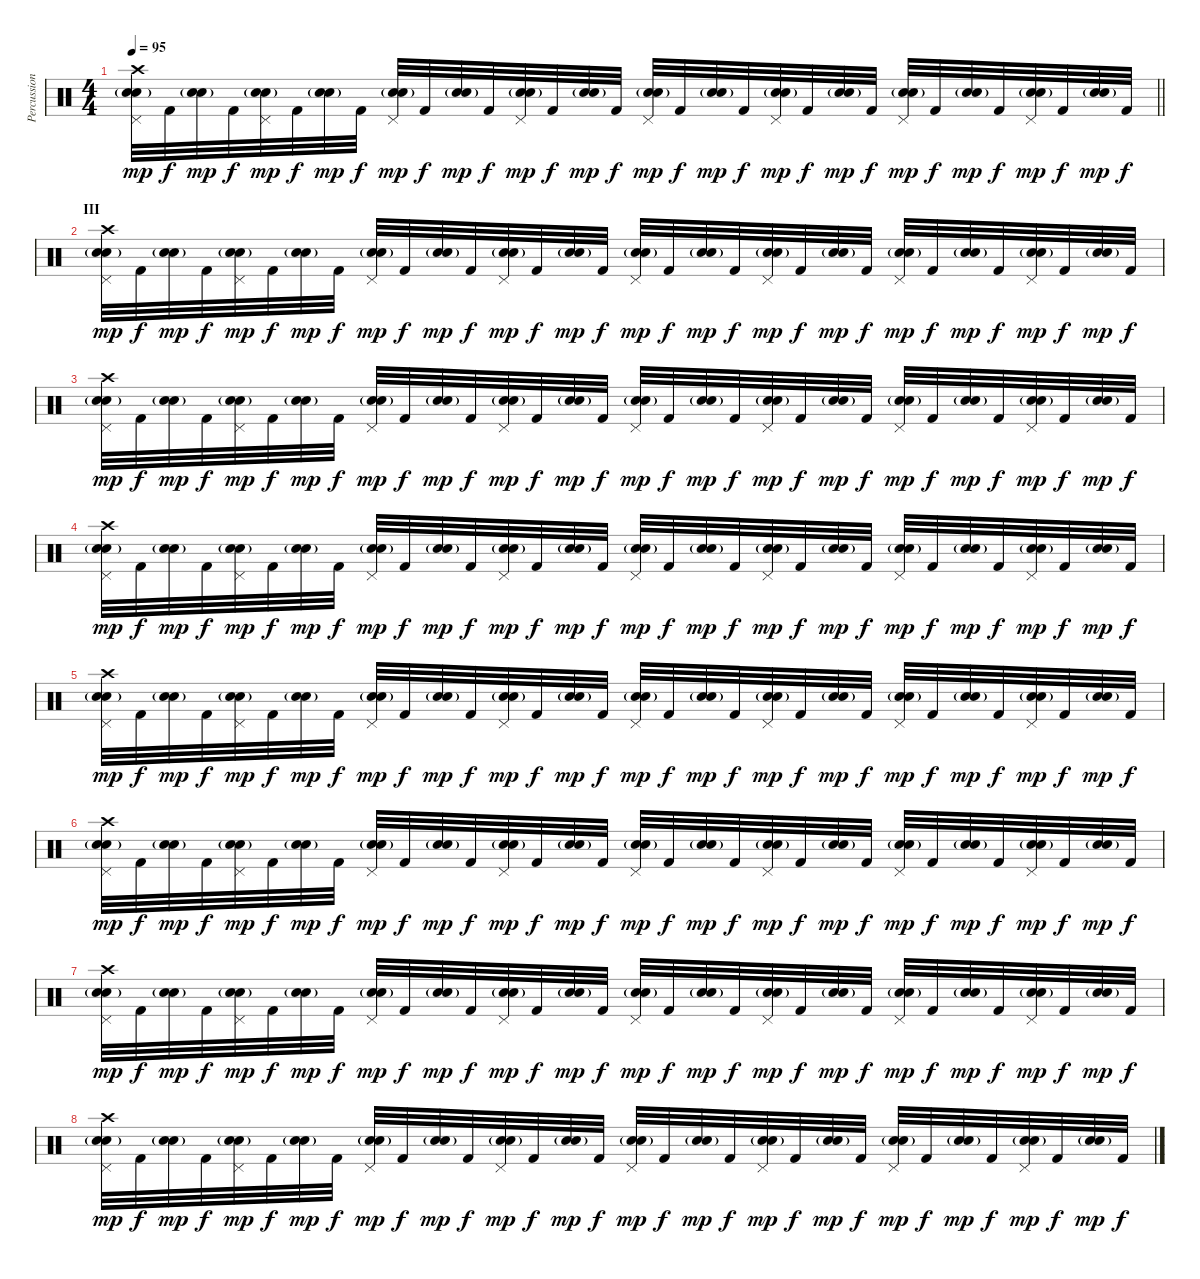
\track ("Percussion" "Percussion") {instrument percussion}
\staff {score}
\articulation defaults
\ts (4 4)
\tempo 95
\clef neutral
\barLineRight lightlight
\ks c
("Crash high (hit)" "Electric Snare (hit)" "Snare (hit) 2"{g} "Pedal Hi-Hat (hit)").32{dy mp} "Kick (hit) 2".32{dy f} ("Electric Snare (hit)" "Snare (hit) 2"{g}).32{dy mp} "Kick (hit) 2".32{dy f} ("Electric Snare (hit)" "Snare (hit) 2"{g} "Pedal Hi-Hat (hit)").32{dy mp} "Kick (hit) 2".32{dy f} ("Electric Snare (hit)" "Snare (hit) 2"{g}).32{dy mp} "Kick (hit) 2".32{dy f} ("Electric Snare (hit)" "Snare (hit) 2"{g} "Pedal Hi-Hat (hit)").32{dy mp} "Kick (hit) 2".32{dy f} ("Electric Snare (hit)" "Snare (hit) 2"{g}).32{dy mp} "Kick (hit) 2".32{dy f} ("Electric Snare (hit)" "Snare (hit) 2"{g} "Pedal Hi-Hat (hit)").32{dy mp} "Kick (hit) 2".32{dy f} ("Electric Snare (hit)" "Snare (hit) 2"{g}).32{dy mp} "Kick (hit) 2".32{dy f} ("Electric Snare (hit)" "Snare (hit) 2"{g} "Pedal Hi-Hat (hit)").32{dy mp} "Kick (hit) 2".32{dy f} ("Electric Snare (hit)" "Snare (hit) 2"{g}).32{dy mp} "Kick (hit) 2".32{dy f} ("Electric Snare (hit)" "Snare (hit) 2"{g} "Pedal Hi-Hat (hit)").32{dy mp} "Kick (hit) 2".32{dy f} ("Electric Snare (hit)" "Snare (hit) 2"{g}).32{dy mp} "Kick (hit) 2".32{dy f} ("Electric Snare (hit)" "Snare (hit) 2"{g} "Pedal Hi-Hat (hit)").32{dy mp} "Kick (hit) 2".32{dy f} ("Electric Snare (hit)" "Snare (hit) 2"{g}).32{dy mp} "Kick (hit) 2".32{dy f} ("Electric Snare (hit)" "Snare (hit) 2"{g} "Pedal Hi-Hat (hit)").32{dy mp} "Kick (hit) 2".32{dy f} ("Electric Snare (hit)" "Snare (hit) 2"{g}).32{dy mp} "Kick (hit) 2".32{dy f} |
\section ("" "III")
("Crash high (hit)" "Electric Snare (hit)" "Snare (hit) 2"{g} "Pedal Hi-Hat (hit)").32{dy mp} "Kick (hit) 2".32{dy f} ("Electric Snare (hit)" "Snare (hit) 2"{g}).32{dy mp} "Kick (hit) 2".32{dy f} ("Electric Snare (hit)" "Snare (hit) 2"{g} "Pedal Hi-Hat (hit)").32{dy mp} "Kick (hit) 2".32{dy f} ("Electric Snare (hit)" "Snare (hit) 2"{g}).32{dy mp} "Kick (hit) 2".32{dy f} ("Electric Snare (hit)" "Snare (hit) 2"{g} "Pedal Hi-Hat (hit)").32{dy mp} "Kick (hit) 2".32{dy f} ("Electric Snare (hit)" "Snare (hit) 2"{g}).32{dy mp} "Kick (hit) 2".32{dy f} ("Electric Snare (hit)" "Snare (hit) 2"{g} "Pedal Hi-Hat (hit)").32{dy mp} "Kick (hit) 2".32{dy f} ("Electric Snare (hit)" "Snare (hit) 2"{g}).32{dy mp} "Kick (hit) 2".32{dy f} ("Electric Snare (hit)" "Snare (hit) 2"{g} "Pedal Hi-Hat (hit)").32{dy mp} "Kick (hit) 2".32{dy f} ("Electric Snare (hit)" "Snare (hit) 2"{g}).32{dy mp} "Kick (hit) 2".32{dy f} ("Electric Snare (hit)" "Snare (hit) 2"{g} "Pedal Hi-Hat (hit)").32{dy mp} "Kick (hit) 2".32{dy f} ("Electric Snare (hit)" "Snare (hit) 2"{g}).32{dy mp} "Kick (hit) 2".32{dy f} ("Electric Snare (hit)" "Snare (hit) 2"{g} "Pedal Hi-Hat (hit)").32{dy mp} "Kick (hit) 2".32{dy f} ("Electric Snare (hit)" "Snare (hit) 2"{g}).32{dy mp} "Kick (hit) 2".32{dy f} ("Electric Snare (hit)" "Snare (hit) 2"{g} "Pedal Hi-Hat (hit)").32{dy mp} "Kick (hit) 2".32{dy f} ("Electric Snare (hit)" "Snare (hit) 2"{g}).32{dy mp} "Kick (hit) 2".32{dy f} |
("Crash high (hit)" "Electric Snare (hit)" "Snare (hit) 2"{g} "Pedal Hi-Hat (hit)").32{dy mp} "Kick (hit) 2".32{dy f} ("Electric Snare (hit)" "Snare (hit) 2"{g}).32{dy mp} "Kick (hit) 2".32{dy f} ("Electric Snare (hit)" "Snare (hit) 2"{g} "Pedal Hi-Hat (hit)").32{dy mp} "Kick (hit) 2".32{dy f} ("Electric Snare (hit)" "Snare (hit) 2"{g}).32{dy mp} "Kick (hit) 2".32{dy f} ("Electric Snare (hit)" "Snare (hit) 2"{g} "Pedal Hi-Hat (hit)").32{dy mp} "Kick (hit) 2".32{dy f} ("Electric Snare (hit)" "Snare (hit) 2"{g}).32{dy mp} "Kick (hit) 2".32{dy f} ("Electric Snare (hit)" "Snare (hit) 2"{g} "Pedal Hi-Hat (hit)").32{dy mp} "Kick (hit) 2".32{dy f} ("Electric Snare (hit)" "Snare (hit) 2"{g}).32{dy mp} "Kick (hit) 2".32{dy f} ("Electric Snare (hit)" "Snare (hit) 2"{g} "Pedal Hi-Hat (hit)").32{dy mp} "Kick (hit) 2".32{dy f} ("Electric Snare (hit)" "Snare (hit) 2"{g}).32{dy mp} "Kick (hit) 2".32{dy f} ("Electric Snare (hit)" "Snare (hit) 2"{g} "Pedal Hi-Hat (hit)").32{dy mp} "Kick (hit) 2".32{dy f} ("Electric Snare (hit)" "Snare (hit) 2"{g}).32{dy mp} "Kick (hit) 2".32{dy f} ("Electric Snare (hit)" "Snare (hit) 2"{g} "Pedal Hi-Hat (hit)").32{dy mp} "Kick (hit) 2".32{dy f} ("Electric Snare (hit)" "Snare (hit) 2"{g}).32{dy mp} "Kick (hit) 2".32{dy f} ("Electric Snare (hit)" "Snare (hit) 2"{g} "Pedal Hi-Hat (hit)").32{dy mp} "Kick (hit) 2".32{dy f} ("Electric Snare (hit)" "Snare (hit) 2"{g}).32{dy mp} "Kick (hit) 2".32{dy f} |
("Crash high (hit)" "Electric Snare (hit)" "Snare (hit) 2"{g} "Pedal Hi-Hat (hit)").32{dy mp} "Kick (hit) 2".32{dy f} ("Electric Snare (hit)" "Snare (hit) 2"{g}).32{dy mp} "Kick (hit) 2".32{dy f} ("Electric Snare (hit)" "Snare (hit) 2"{g} "Pedal Hi-Hat (hit)").32{dy mp} "Kick (hit) 2".32{dy f} ("Electric Snare (hit)" "Snare (hit) 2"{g}).32{dy mp} "Kick (hit) 2".32{dy f} ("Electric Snare (hit)" "Snare (hit) 2"{g} "Pedal Hi-Hat (hit)").32{dy mp} "Kick (hit) 2".32{dy f} ("Electric Snare (hit)" "Snare (hit) 2"{g}).32{dy mp} "Kick (hit) 2".32{dy f} ("Electric Snare (hit)" "Snare (hit) 2"{g} "Pedal Hi-Hat (hit)").32{dy mp} "Kick (hit) 2".32{dy f} ("Electric Snare (hit)" "Snare (hit) 2"{g}).32{dy mp} "Kick (hit) 2".32{dy f} ("Electric Snare (hit)" "Snare (hit) 2"{g} "Pedal Hi-Hat (hit)").32{dy mp} "Kick (hit) 2".32{dy f} ("Electric Snare (hit)" "Snare (hit) 2"{g}).32{dy mp} "Kick (hit) 2".32{dy f} ("Electric Snare (hit)" "Snare (hit) 2"{g} "Pedal Hi-Hat (hit)").32{dy mp} "Kick (hit) 2".32{dy f} ("Electric Snare (hit)" "Snare (hit) 2"{g}).32{dy mp} "Kick (hit) 2".32{dy f} ("Electric Snare (hit)" "Snare (hit) 2"{g} "Pedal Hi-Hat (hit)").32{dy mp} "Kick (hit) 2".32{dy f} ("Electric Snare (hit)" "Snare (hit) 2"{g}).32{dy mp} "Kick (hit) 2".32{dy f} ("Electric Snare (hit)" "Snare (hit) 2"{g} "Pedal Hi-Hat (hit)").32{dy mp} "Kick (hit) 2".32{dy f} ("Electric Snare (hit)" "Snare (hit) 2"{g}).32{dy mp} "Kick (hit) 2".32{dy f} |
("Crash high (hit)" "Electric Snare (hit)" "Snare (hit) 2"{g} "Pedal Hi-Hat (hit)").32{dy mp} "Kick (hit) 2".32{dy f} ("Electric Snare (hit)" "Snare (hit) 2"{g}).32{dy mp} "Kick (hit) 2".32{dy f} ("Electric Snare (hit)" "Snare (hit) 2"{g} "Pedal Hi-Hat (hit)").32{dy mp} "Kick (hit) 2".32{dy f} ("Electric Snare (hit)" "Snare (hit) 2"{g}).32{dy mp} "Kick (hit) 2".32{dy f} ("Electric Snare (hit)" "Snare (hit) 2"{g} "Pedal Hi-Hat (hit)").32{dy mp} "Kick (hit) 2".32{dy f} ("Electric Snare (hit)" "Snare (hit) 2"{g}).32{dy mp} "Kick (hit) 2".32{dy f} ("Electric Snare (hit)" "Snare (hit) 2"{g} "Pedal Hi-Hat (hit)").32{dy mp} "Kick (hit) 2".32{dy f} ("Electric Snare (hit)" "Snare (hit) 2"{g}).32{dy mp} "Kick (hit) 2".32{dy f} ("Electric Snare (hit)" "Snare (hit) 2"{g} "Pedal Hi-Hat (hit)").32{dy mp} "Kick (hit) 2".32{dy f} ("Electric Snare (hit)" "Snare (hit) 2"{g}).32{dy mp} "Kick (hit) 2".32{dy f} ("Electric Snare (hit)" "Snare (hit) 2"{g} "Pedal Hi-Hat (hit)").32{dy mp} "Kick (hit) 2".32{dy f} ("Electric Snare (hit)" "Snare (hit) 2"{g}).32{dy mp} "Kick (hit) 2".32{dy f} ("Electric Snare (hit)" "Snare (hit) 2"{g} "Pedal Hi-Hat (hit)").32{dy mp} "Kick (hit) 2".32{dy f} ("Electric Snare (hit)" "Snare (hit) 2"{g}).32{dy mp} "Kick (hit) 2".32{dy f} ("Electric Snare (hit)" "Snare (hit) 2"{g} "Pedal Hi-Hat (hit)").32{dy mp} "Kick (hit) 2".32{dy f} ("Electric Snare (hit)" "Snare (hit) 2"{g}).32{dy mp} "Kick (hit) 2".32{dy f} |
("Crash high (hit)" "Electric Snare (hit)" "Snare (hit) 2"{g} "Pedal Hi-Hat (hit)").32{dy mp} "Kick (hit) 2".32{dy f} ("Electric Snare (hit)" "Snare (hit) 2"{g}).32{dy mp} "Kick (hit) 2".32{dy f} ("Electric Snare (hit)" "Snare (hit) 2"{g} "Pedal Hi-Hat (hit)").32{dy mp} "Kick (hit) 2".32{dy f} ("Electric Snare (hit)" "Snare (hit) 2"{g}).32{dy mp} "Kick (hit) 2".32{dy f} ("Electric Snare (hit)" "Snare (hit) 2"{g} "Pedal Hi-Hat (hit)").32{dy mp} "Kick (hit) 2".32{dy f} ("Electric Snare (hit)" "Snare (hit) 2"{g}).32{dy mp} "Kick (hit) 2".32{dy f} ("Electric Snare (hit)" "Snare (hit) 2"{g} "Pedal Hi-Hat (hit)").32{dy mp} "Kick (hit) 2".32{dy f} ("Electric Snare (hit)" "Snare (hit) 2"{g}).32{dy mp} "Kick (hit) 2".32{dy f} ("Electric Snare (hit)" "Snare (hit) 2"{g} "Pedal Hi-Hat (hit)").32{dy mp} "Kick (hit) 2".32{dy f} ("Electric Snare (hit)" "Snare (hit) 2"{g}).32{dy mp} "Kick (hit) 2".32{dy f} ("Electric Snare (hit)" "Snare (hit) 2"{g} "Pedal Hi-Hat (hit)").32{dy mp} "Kick (hit) 2".32{dy f} ("Electric Snare (hit)" "Snare (hit) 2"{g}).32{dy mp} "Kick (hit) 2".32{dy f} ("Electric Snare (hit)" "Snare (hit) 2"{g} "Pedal Hi-Hat (hit)").32{dy mp} "Kick (hit) 2".32{dy f} ("Electric Snare (hit)" "Snare (hit) 2"{g}).32{dy mp} "Kick (hit) 2".32{dy f} ("Electric Snare (hit)" "Snare (hit) 2"{g} "Pedal Hi-Hat (hit)").32{dy mp} "Kick (hit) 2".32{dy f} ("Electric Snare (hit)" "Snare (hit) 2"{g}).32{dy mp} "Kick (hit) 2".32{dy f} |
("Crash high (hit)" "Electric Snare (hit)" "Snare (hit) 2"{g} "Pedal Hi-Hat (hit)").32{dy mp} "Kick (hit) 2".32{dy f} ("Electric Snare (hit)" "Snare (hit) 2"{g}).32{dy mp} "Kick (hit) 2".32{dy f} ("Electric Snare (hit)" "Snare (hit) 2"{g} "Pedal Hi-Hat (hit)").32{dy mp} "Kick (hit) 2".32{dy f} ("Electric Snare (hit)" "Snare (hit) 2"{g}).32{dy mp} "Kick (hit) 2".32{dy f} ("Electric Snare (hit)" "Snare (hit) 2"{g} "Pedal Hi-Hat (hit)").32{dy mp} "Kick (hit) 2".32{dy f} ("Electric Snare (hit)" "Snare (hit) 2"{g}).32{dy mp} "Kick (hit) 2".32{dy f} ("Electric Snare (hit)" "Snare (hit) 2"{g} "Pedal Hi-Hat (hit)").32{dy mp} "Kick (hit) 2".32{dy f} ("Electric Snare (hit)" "Snare (hit) 2"{g}).32{dy mp} "Kick (hit) 2".32{dy f} ("Electric Snare (hit)" "Snare (hit) 2"{g} "Pedal Hi-Hat (hit)").32{dy mp} "Kick (hit) 2".32{dy f} ("Electric Snare (hit)" "Snare (hit) 2"{g}).32{dy mp} "Kick (hit) 2".32{dy f} ("Electric Snare (hit)" "Snare (hit) 2"{g} "Pedal Hi-Hat (hit)").32{dy mp} "Kick (hit) 2".32{dy f} ("Electric Snare (hit)" "Snare (hit) 2"{g}).32{dy mp} "Kick (hit) 2".32{dy f} ("Electric Snare (hit)" "Snare (hit) 2"{g} "Pedal Hi-Hat (hit)").32{dy mp} "Kick (hit) 2".32{dy f} ("Electric Snare (hit)" "Snare (hit) 2"{g}).32{dy mp} "Kick (hit) 2".32{dy f} ("Electric Snare (hit)" "Snare (hit) 2"{g} "Pedal Hi-Hat (hit)").32{dy mp} "Kick (hit) 2".32{dy f} ("Electric Snare (hit)" "Snare (hit) 2"{g}).32{dy mp} "Kick (hit) 2".32{dy f} |
("Crash high (hit)" "Electric Snare (hit)" "Snare (hit) 2"{g} "Pedal Hi-Hat (hit)").32{dy mp} "Kick (hit) 2".32{dy f} ("Electric Snare (hit)" "Snare (hit) 2"{g}).32{dy mp} "Kick (hit) 2".32{dy f} ("Electric Snare (hit)" "Snare (hit) 2"{g} "Pedal Hi-Hat (hit)").32{dy mp} "Kick (hit) 2".32{dy f} ("Electric Snare (hit)" "Snare (hit) 2"{g}).32{dy mp} "Kick (hit) 2".32{dy f} ("Electric Snare (hit)" "Snare (hit) 2"{g} "Pedal Hi-Hat (hit)").32{dy mp} "Kick (hit) 2".32{dy f} ("Electric Snare (hit)" "Snare (hit) 2"{g}).32{dy mp} "Kick (hit) 2".32{dy f} ("Electric Snare (hit)" "Snare (hit) 2"{g} "Pedal Hi-Hat (hit)").32{dy mp} "Kick (hit) 2".32{dy f} ("Electric Snare (hit)" "Snare (hit) 2"{g}).32{dy mp} "Kick (hit) 2".32{dy f} ("Electric Snare (hit)" "Snare (hit) 2"{g} "Pedal Hi-Hat (hit)").32{dy mp} "Kick (hit) 2".32{dy f} ("Electric Snare (hit)" "Snare (hit) 2"{g}).32{dy mp} "Kick (hit) 2".32{dy f} ("Electric Snare (hit)" "Snare (hit) 2"{g} "Pedal Hi-Hat (hit)").32{dy mp} "Kick (hit) 2".32{dy f} ("Electric Snare (hit)" "Snare (hit) 2"{g}).32{dy mp} "Kick (hit) 2".32{dy f} ("Electric Snare (hit)" "Snare (hit) 2"{g} "Pedal Hi-Hat (hit)").32{dy mp} "Kick (hit) 2".32{dy f} ("Electric Snare (hit)" "Snare (hit) 2"{g}).32{dy mp} "Kick (hit) 2".32{dy f} ("Electric Snare (hit)" "Snare (hit) 2"{g} "Pedal Hi-Hat (hit)").32{dy mp} "Kick (hit) 2".32{dy f} ("Electric Snare (hit)" "Snare (hit) 2"{g}).32{dy mp} "Kick (hit) 2".32{dy f}
